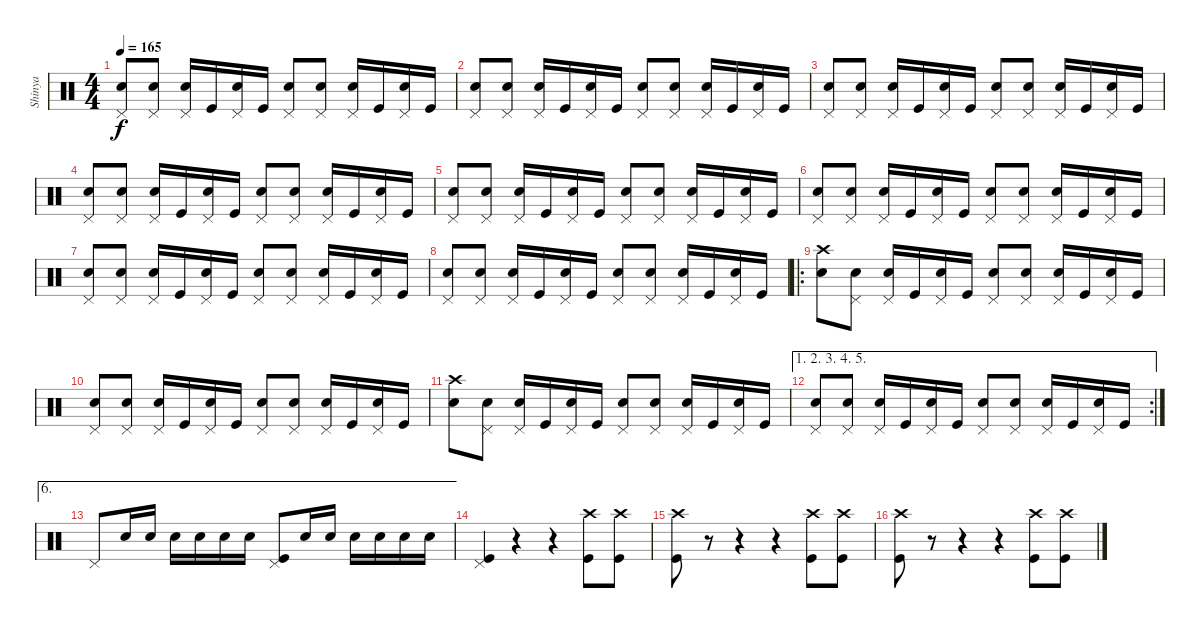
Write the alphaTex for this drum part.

\track ("Shinya" "Shinya") {instrument percussion}
\staff {score}
\articulation defaults
\ts (4 4)
\tempo 165
\clef neutral
\ks c
("Pedal Hi-Hat (hit)" "Electric Snare (hit)").8{dy f volume 5} ("Pedal Hi-Hat (hit)" "Electric Snare (hit)").8 ("Pedal Hi-Hat (hit)" "Electric Snare (hit)").16 "Kick (hit)".16 ("Pedal Hi-Hat (hit)" "Electric Snare (hit)").16 "Kick (hit)".16 ("Pedal Hi-Hat (hit)" "Electric Snare (hit)").8 ("Pedal Hi-Hat (hit)" "Electric Snare (hit)").8 ("Pedal Hi-Hat (hit)" "Electric Snare (hit)").16 "Kick (hit)".16 ("Pedal Hi-Hat (hit)" "Electric Snare (hit)").16{volume 6} "Kick (hit)".16 |
("Pedal Hi-Hat (hit)" "Electric Snare (hit)").8 ("Pedal Hi-Hat (hit)" "Electric Snare (hit)").8 ("Pedal Hi-Hat (hit)" "Electric Snare (hit)").16 "Kick (hit)".16 ("Pedal Hi-Hat (hit)" "Electric Snare (hit)").16 "Kick (hit)".16 ("Pedal Hi-Hat (hit)" "Electric Snare (hit)").8 ("Pedal Hi-Hat (hit)" "Electric Snare (hit)").8 ("Pedal Hi-Hat (hit)" "Electric Snare (hit)").16{volume 7} "Kick (hit)".16 ("Pedal Hi-Hat (hit)" "Electric Snare (hit)").16 "Kick (hit)".16 |
("Pedal Hi-Hat (hit)" "Electric Snare (hit)").8 ("Pedal Hi-Hat (hit)" "Electric Snare (hit)").8 ("Pedal Hi-Hat (hit)" "Electric Snare (hit)").16 "Kick (hit)".16 ("Pedal Hi-Hat (hit)" "Electric Snare (hit)").16 "Kick (hit)".16 ("Pedal Hi-Hat (hit)" "Electric Snare (hit)").8 ("Pedal Hi-Hat (hit)" "Electric Snare (hit)").8{volume 8} ("Pedal Hi-Hat (hit)" "Electric Snare (hit)").16 "Kick (hit)".16 ("Pedal Hi-Hat (hit)" "Electric Snare (hit)").16 "Kick (hit)".16 |
("Pedal Hi-Hat (hit)" "Electric Snare (hit)").8 ("Pedal Hi-Hat (hit)" "Electric Snare (hit)").8 ("Pedal Hi-Hat (hit)" "Electric Snare (hit)").16 "Kick (hit)".16 ("Pedal Hi-Hat (hit)" "Electric Snare (hit)").16 "Kick (hit)".16{volume 9} ("Pedal Hi-Hat (hit)" "Electric Snare (hit)").8 ("Pedal Hi-Hat (hit)" "Electric Snare (hit)").8 ("Pedal Hi-Hat (hit)" "Electric Snare (hit)").16 "Kick (hit)".16 ("Pedal Hi-Hat (hit)" "Electric Snare (hit)").16 "Kick (hit)".16 |
("Pedal Hi-Hat (hit)" "Electric Snare (hit)").8{volume 10} ("Pedal Hi-Hat (hit)" "Electric Snare (hit)").8 ("Pedal Hi-Hat (hit)" "Electric Snare (hit)").16 "Kick (hit)".16 ("Pedal Hi-Hat (hit)" "Electric Snare (hit)").16 "Kick (hit)".16 ("Pedal Hi-Hat (hit)" "Electric Snare (hit)").8 ("Pedal Hi-Hat (hit)" "Electric Snare (hit)").8 ("Pedal Hi-Hat (hit)" "Electric Snare (hit)").16 "Kick (hit)".16 ("Pedal Hi-Hat (hit)" "Electric Snare (hit)").16 "Kick (hit)".16 |
("Pedal Hi-Hat (hit)" "Electric Snare (hit)").8 ("Pedal Hi-Hat (hit)" "Electric Snare (hit)").8{volume 11} ("Pedal Hi-Hat (hit)" "Electric Snare (hit)").16 "Kick (hit)".16 ("Pedal Hi-Hat (hit)" "Electric Snare (hit)").16 "Kick (hit)".16 ("Pedal Hi-Hat (hit)" "Electric Snare (hit)").8 ("Pedal Hi-Hat (hit)" "Electric Snare (hit)").8 ("Pedal Hi-Hat (hit)" "Electric Snare (hit)").16 "Kick (hit)".16 ("Pedal Hi-Hat (hit)" "Electric Snare (hit)").16 "Kick (hit)".16 |
("Pedal Hi-Hat (hit)" "Electric Snare (hit)").8{volume 12} ("Pedal Hi-Hat (hit)" "Electric Snare (hit)").8 ("Pedal Hi-Hat (hit)" "Electric Snare (hit)").16 "Kick (hit)".16 ("Pedal Hi-Hat (hit)" "Electric Snare (hit)").16 "Kick (hit)".16 ("Pedal Hi-Hat (hit)" "Electric Snare (hit)").8 ("Pedal Hi-Hat (hit)" "Electric Snare (hit)").8 ("Pedal Hi-Hat (hit)" "Electric Snare (hit)").16 "Kick (hit)".16 ("Pedal Hi-Hat (hit)" "Electric Snare (hit)").16 "Kick (hit)".16 |
("Pedal Hi-Hat (hit)" "Electric Snare (hit)").8 ("Pedal Hi-Hat (hit)" "Electric Snare (hit)").8 ("Pedal Hi-Hat (hit)" "Electric Snare (hit)").16 "Kick (hit)".16 ("Pedal Hi-Hat (hit)" "Electric Snare (hit)").16{volume 13} "Kick (hit)".16 ("Pedal Hi-Hat (hit)" "Electric Snare (hit)").8 ("Pedal Hi-Hat (hit)" "Electric Snare (hit)").8 ("Pedal Hi-Hat (hit)" "Electric Snare (hit)").16 "Kick (hit)".16 ("Pedal Hi-Hat (hit)" "Electric Snare (hit)").16 "Kick (hit)".16 |
\ro
("Crash high (hit)" "Electric Snare (hit)").8{volume 14} ("Pedal Hi-Hat (hit)" "Electric Snare (hit)").8 ("Pedal Hi-Hat (hit)" "Electric Snare (hit)").16 "Kick (hit)".16 ("Pedal Hi-Hat (hit)" "Electric Snare (hit)").16 "Kick (hit)".16 ("Pedal Hi-Hat (hit)" "Electric Snare (hit)").8 ("Pedal Hi-Hat (hit)" "Electric Snare (hit)").8 ("Pedal Hi-Hat (hit)" "Electric Snare (hit)").16 "Kick (hit)".16 ("Pedal Hi-Hat (hit)" "Electric Snare (hit)").16 "Kick (hit)".16 |
("Pedal Hi-Hat (hit)" "Electric Snare (hit)").8 ("Pedal Hi-Hat (hit)" "Electric Snare (hit)").8 ("Pedal Hi-Hat (hit)" "Electric Snare (hit)").16 "Kick (hit)".16 ("Pedal Hi-Hat (hit)" "Electric Snare (hit)").16 "Kick (hit)".16 ("Pedal Hi-Hat (hit)" "Electric Snare (hit)").8 ("Pedal Hi-Hat (hit)" "Electric Snare (hit)").8 ("Pedal Hi-Hat (hit)" "Electric Snare (hit)").16 "Kick (hit)".16 ("Pedal Hi-Hat (hit)" "Electric Snare (hit)").16 "Kick (hit)".16 |
("Crash high (hit)" "Electric Snare (hit)").8 ("Pedal Hi-Hat (hit)" "Electric Snare (hit)").8 ("Pedal Hi-Hat (hit)" "Electric Snare (hit)").16 "Kick (hit)".16 ("Pedal Hi-Hat (hit)" "Electric Snare (hit)").16 "Kick (hit)".16 ("Pedal Hi-Hat (hit)" "Electric Snare (hit)").8 ("Pedal Hi-Hat (hit)" "Electric Snare (hit)").8 ("Pedal Hi-Hat (hit)" "Electric Snare (hit)").16 "Kick (hit)".16 ("Pedal Hi-Hat (hit)" "Electric Snare (hit)").16 "Kick (hit)".16 |
\ae (1 2 3 4 5)
\rc 2
("Pedal Hi-Hat (hit)" "Electric Snare (hit)").8 ("Pedal Hi-Hat (hit)" "Electric Snare (hit)").8 ("Pedal Hi-Hat (hit)" "Electric Snare (hit)").16 "Kick (hit)".16 ("Pedal Hi-Hat (hit)" "Electric Snare (hit)").16 "Kick (hit)".16 ("Pedal Hi-Hat (hit)" "Electric Snare (hit)").8 ("Pedal Hi-Hat (hit)" "Electric Snare (hit)").8 ("Pedal Hi-Hat (hit)" "Electric Snare (hit)").16 "Kick (hit)".16 ("Pedal Hi-Hat (hit)" "Electric Snare (hit)").16 "Kick (hit)".16 |
\ae 6 "Pedal Hi-Hat (hit)".8 "Electric Snare (hit)".16 "Electric Snare (hit)".16 "Electric Snare (hit)".16 "Electric Snare (hit)".16 "Electric Snare (hit)".16 "Electric Snare (hit)".16
("Pedal Hi-Hat (hit)" "Kick (hit)").8 "Electric Snare (hit)".16 "Electric Snare (hit)".16 "Electric Snare (hit)".16 "Electric Snare (hit)".16 "Electric Snare (hit)".16 "Electric Snare (hit)".16 |
("Pedal Hi-Hat (hit)" "Kick (hit)").4{volume 13} r.4 r.4 ("Crash high (hit)" "Kick (hit)").8 ("Crash high (hit)" "Kick (hit)").8 |
("Crash high (hit)" "Kick (hit)").8 r.8 r.4 r.4 ("Crash high (hit)" "Kick (hit)").8 ("Crash high (hit)" "Kick (hit)").8 |
("Crash high (hit)" "Kick (hit)").8 r.8 r.4 r.4 ("Crash high (hit)" "Kick (hit)").8 ("Crash high (hit)" "Kick (hit)").8
